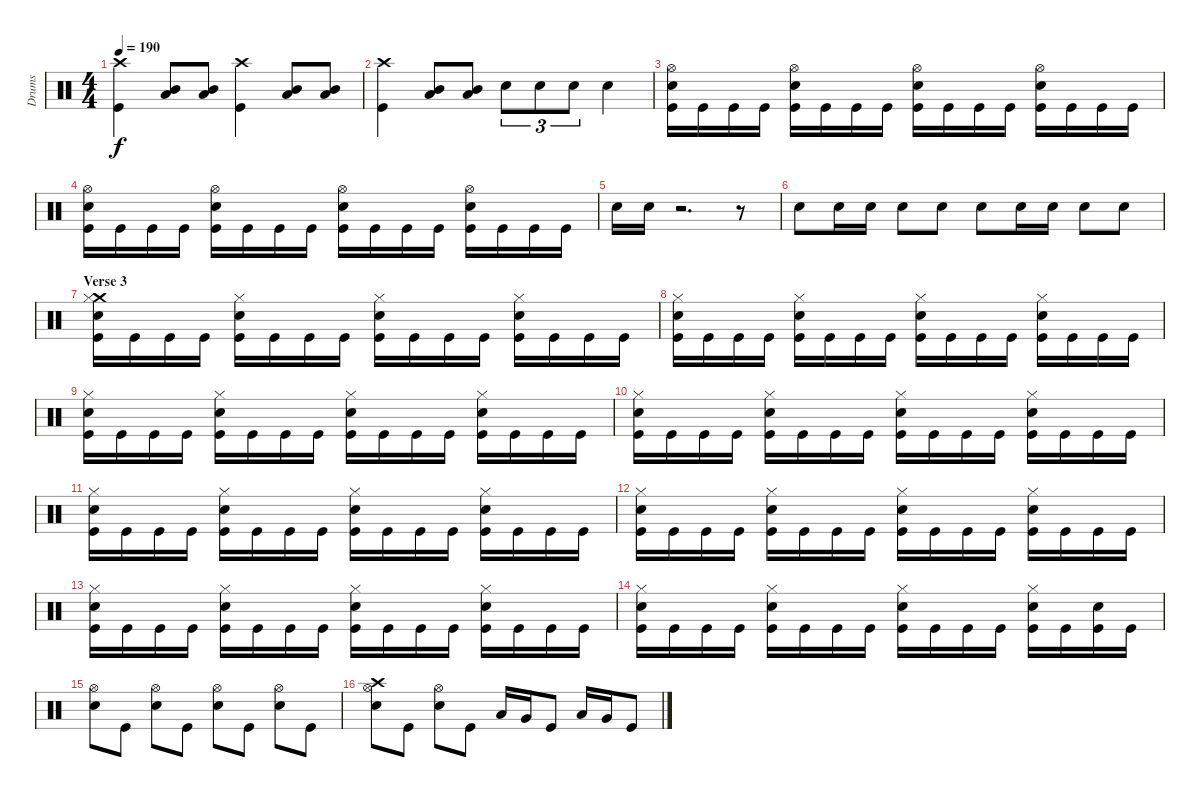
\track ("Drums" "Drums") {instrument percussion}
\staff {score}
\articulation defaults
\ts (4 4)
\tempo 190
\clef neutral
\ks c
("Crash high (hit)" "Kick (hit)").4{dy f} ("Mid Tom (hit)" "Low Tom (hit)").8 ("Mid Tom (hit)" "Low Tom (hit)").8 ("Crash high (hit)" "Kick (hit)").4 ("Mid Tom (hit)" "Low Tom (hit)").8 ("Mid Tom (hit)" "Low Tom (hit)").8 |
("Crash high (hit)" "Kick (hit)").4 ("Mid Tom (hit)" "Low Tom (hit)").8 ("Mid Tom (hit)" "Low Tom (hit)").8 "Snare (hit) 2".8{tu (3 2)} "Snare (hit) 2".8{tu (3 2)} "Snare (hit) 2".8{tu (3 2)} "Snare (hit) 2".4 |
("Hi-Hat (open)" "Snare (hit) 2" "Kick (hit)").16 "Kick (hit)".16 "Kick (hit)".16 "Kick (hit)".16 ("Hi-Hat (open)" "Snare (hit) 2" "Kick (hit)").16 "Kick (hit)".16 "Kick (hit)".16 "Kick (hit)".16 ("Hi-Hat (open)" "Snare (hit) 2" "Kick (hit)").16 "Kick (hit)".16 "Kick (hit)".16 "Kick (hit)".16 ("Hi-Hat (open)" "Snare (hit) 2" "Kick (hit)").16 "Kick (hit)".16 "Kick (hit)".16 "Kick (hit)".16 |
("Hi-Hat (open)" "Snare (hit) 2" "Kick (hit)").16 "Kick (hit)".16 "Kick (hit)".16 "Kick (hit)".16 ("Hi-Hat (open)" "Snare (hit) 2" "Kick (hit)").16 "Kick (hit)".16 "Kick (hit)".16 "Kick (hit)".16 ("Hi-Hat (open)" "Snare (hit) 2" "Kick (hit)").16 "Kick (hit)".16 "Kick (hit)".16 "Kick (hit)".16 ("Hi-Hat (open)" "Snare (hit) 2" "Kick (hit)").16 "Kick (hit)".16 "Kick (hit)".16 "Kick (hit)".16 |
"Snare (hit) 2".16 "Snare (hit) 2".16 r.2{d} r.8 |
"Snare (hit) 2".8 "Snare (hit) 2".16 "Snare (hit) 2".16 "Snare (hit) 2".8 "Snare (hit) 2".8 "Snare (hit) 2".8 "Snare (hit) 2".16 "Snare (hit) 2".16 "Snare (hit) 2".8 "Snare (hit) 2".8 |
\section ("" "Verse 3")
("Crash medium (hit)" "Hi-Hat (closed)" "Snare (hit) 2" "Kick (hit)").16 "Kick (hit)".16 "Kick (hit)".16 "Kick (hit)".16 ("Hi-Hat (closed)" "Snare (hit) 2" "Kick (hit)").16 "Kick (hit)".16 "Kick (hit)".16 "Kick (hit)".16 ("Hi-Hat (closed)" "Snare (hit) 2" "Kick (hit)").16 "Kick (hit)".16 "Kick (hit)".16 "Kick (hit)".16 ("Hi-Hat (closed)" "Snare (hit) 2" "Kick (hit)").16 "Kick (hit)".16 "Kick (hit)".16 "Kick (hit)".16 |
("Hi-Hat (closed)" "Snare (hit) 2" "Kick (hit)").16 "Kick (hit)".16 "Kick (hit)".16 "Kick (hit)".16 ("Hi-Hat (closed)" "Snare (hit) 2" "Kick (hit)").16 "Kick (hit)".16 "Kick (hit)".16 "Kick (hit)".16 ("Hi-Hat (closed)" "Snare (hit) 2" "Kick (hit)").16 "Kick (hit)".16 "Kick (hit)".16 "Kick (hit)".16 ("Hi-Hat (closed)" "Snare (hit) 2" "Kick (hit)").16 "Kick (hit)".16 "Kick (hit)".16 "Kick (hit)".16 |
("Hi-Hat (closed)" "Snare (hit) 2" "Kick (hit)").16 "Kick (hit)".16 "Kick (hit)".16 "Kick (hit)".16 ("Hi-Hat (closed)" "Snare (hit) 2" "Kick (hit)").16 "Kick (hit)".16 "Kick (hit)".16 "Kick (hit)".16 ("Hi-Hat (closed)" "Snare (hit) 2" "Kick (hit)").16 "Kick (hit)".16 "Kick (hit)".16 "Kick (hit)".16 ("Hi-Hat (closed)" "Snare (hit) 2" "Kick (hit)").16 "Kick (hit)".16 "Kick (hit)".16 "Kick (hit)".16 |
("Hi-Hat (closed)" "Snare (hit) 2" "Kick (hit)").16 "Kick (hit)".16 "Kick (hit)".16 "Kick (hit)".16 ("Hi-Hat (closed)" "Snare (hit) 2" "Kick (hit)").16 "Kick (hit)".16 "Kick (hit)".16 "Kick (hit)".16 ("Hi-Hat (closed)" "Snare (hit) 2" "Kick (hit)").16 "Kick (hit)".16 "Kick (hit)".16 "Kick (hit)".16 ("Hi-Hat (closed)" "Snare (hit) 2" "Kick (hit)").16 "Kick (hit)".16 "Kick (hit)".16 "Kick (hit)".16 |
("Hi-Hat (closed)" "Snare (hit) 2" "Kick (hit)").16 "Kick (hit)".16 "Kick (hit)".16 "Kick (hit)".16 ("Hi-Hat (closed)" "Snare (hit) 2" "Kick (hit)").16 "Kick (hit)".16 "Kick (hit)".16 "Kick (hit)".16 ("Hi-Hat (closed)" "Snare (hit) 2" "Kick (hit)").16 "Kick (hit)".16 "Kick (hit)".16 "Kick (hit)".16 ("Hi-Hat (closed)" "Snare (hit) 2" "Kick (hit)").16 "Kick (hit)".16 "Kick (hit)".16 "Kick (hit)".16 |
("Hi-Hat (closed)" "Snare (hit) 2" "Kick (hit)").16 "Kick (hit)".16 "Kick (hit)".16 "Kick (hit)".16 ("Hi-Hat (closed)" "Snare (hit) 2" "Kick (hit)").16 "Kick (hit)".16 "Kick (hit)".16 "Kick (hit)".16 ("Hi-Hat (closed)" "Snare (hit) 2" "Kick (hit)").16 "Kick (hit)".16 "Kick (hit)".16 "Kick (hit)".16 ("Hi-Hat (closed)" "Snare (hit) 2" "Kick (hit)").16 "Kick (hit)".16 "Kick (hit)".16 "Kick (hit)".16 |
("Hi-Hat (closed)" "Snare (hit) 2" "Kick (hit)").16 "Kick (hit)".16 "Kick (hit)".16 "Kick (hit)".16 ("Hi-Hat (closed)" "Snare (hit) 2" "Kick (hit)").16 "Kick (hit)".16 "Kick (hit)".16 "Kick (hit)".16 ("Hi-Hat (closed)" "Snare (hit) 2" "Kick (hit)").16 "Kick (hit)".16 "Kick (hit)".16 "Kick (hit)".16 ("Hi-Hat (closed)" "Snare (hit) 2" "Kick (hit)").16 "Kick (hit)".16 "Kick (hit)".16 "Kick (hit)".16 |
("Hi-Hat (closed)" "Snare (hit) 2" "Kick (hit)").16 "Kick (hit)".16 "Kick (hit)".16 "Kick (hit)".16 ("Hi-Hat (closed)" "Snare (hit) 2" "Kick (hit)").16 "Kick (hit)".16 "Kick (hit)".16 "Kick (hit)".16 ("Hi-Hat (closed)" "Snare (hit) 2" "Kick (hit)").16 "Kick (hit)".16 "Kick (hit)".16 "Kick (hit)".16 ("Hi-Hat (closed)" "Snare (hit) 2" "Kick (hit)").16 "Kick (hit)".16 ("Snare (hit) 2" "Kick (hit)").16 "Kick (hit)".16 |
("Hi-Hat (open)" "Snare (hit) 2").8 "Kick (hit)".8 ("Hi-Hat (open)" "Snare (hit) 2").8 "Kick (hit)".8 ("Hi-Hat (open)" "Snare (hit) 2").8 "Kick (hit)".8 ("Hi-Hat (open)" "Snare (hit) 2").8 "Kick (hit)".8 |
("Crash high (hit)" "Hi-Hat (open)" "Snare (hit) 2").8 "Kick (hit)".8 ("Hi-Hat (open)" "Snare (hit) 2").8 "Kick (hit)".8 "Low Tom (hit)".16 "Very Low Tom (hit)".16 "Kick (hit)".8 "Low Tom (hit)".16 "Very Low Tom (hit)".16 "Kick (hit)".8
